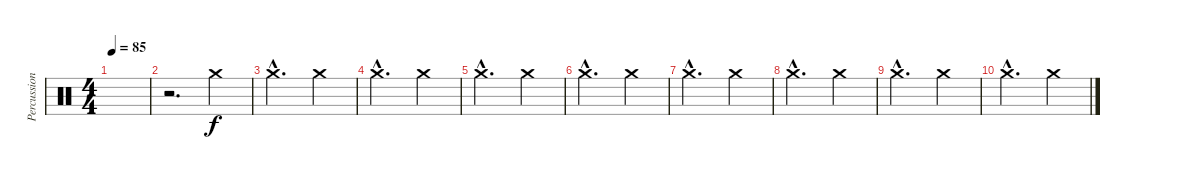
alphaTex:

\track ("Percussion" "Percussion") {instrument percussion}
\staff {score}
\articulation defaults
\ts (4 4)
\tempo 85
\clef neutral
\ks c
|
r.2{d} "Crash medium (hit)".4 |
"Crash medium (hit)"{hac}.2{d} "Crash medium (hit)".4 |
"Crash medium (hit)"{hac}.2{d} "Crash medium (hit)".4 |
"Crash medium (hit)"{hac}.2{d} "Crash medium (hit)".4 |
"Crash medium (hit)"{hac}.2{d} "Crash medium (hit)".4 |
"Crash medium (hit)"{hac}.2{d} "Crash medium (hit)".4 |
"Crash medium (hit)"{hac}.2{d} "Crash medium (hit)".4 |
"Crash medium (hit)"{hac}.2{d} "Crash medium (hit)".4 |
"Crash medium (hit)"{hac}.2{d} "Crash medium (hit)".4
